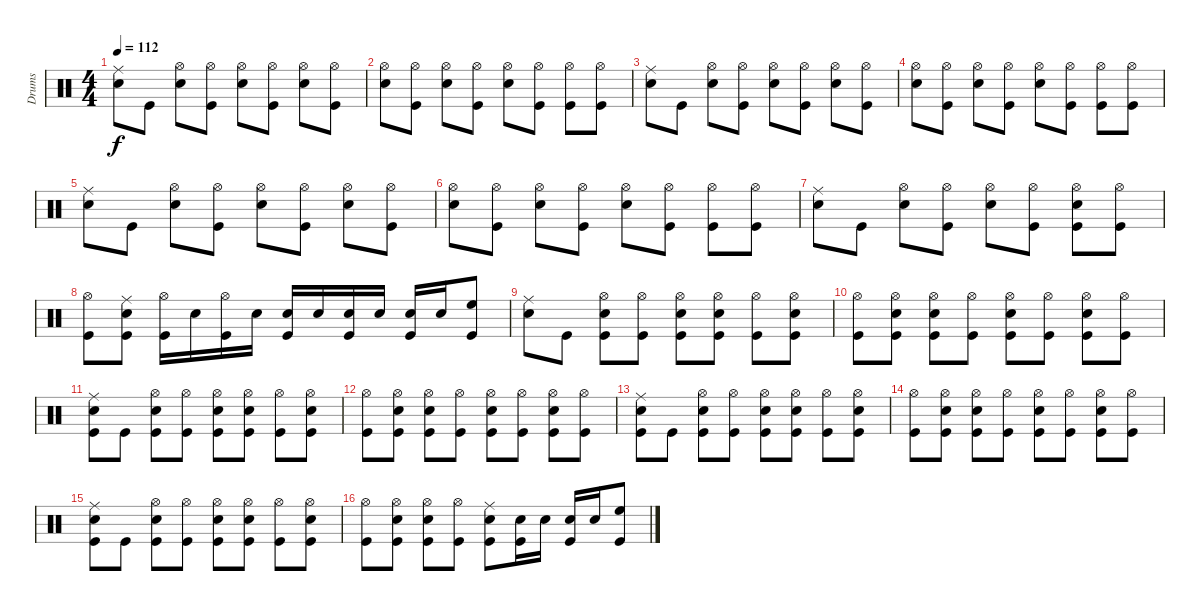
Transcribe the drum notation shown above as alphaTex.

\track ("Drums" "Drums") {instrument percussion}
\staff {score}
\articulation defaults
\ts (4 4)
\tempo 112
\clef neutral
\ks c
("Ride (middle)" "Snare (hit) 2").8{dy f} "Kick (hit)".8 ("Hi-Hat (open)" "Snare (hit) 2").8 ("Hi-Hat (open)" "Kick (hit)").8 ("Hi-Hat (open)" "Snare (hit) 2").8 ("Hi-Hat (open)" "Kick (hit)").8 ("Hi-Hat (open)" "Snare (hit) 2").8 ("Hi-Hat (open)" "Kick (hit)").8 |
("Hi-Hat (open)" "Snare (hit) 2").8 ("Hi-Hat (open)" "Kick (hit)").8 ("Hi-Hat (open)" "Snare (hit) 2").8 ("Hi-Hat (open)" "Kick (hit)").8 ("Hi-Hat (open)" "Snare (hit) 2").8 ("Hi-Hat (open)" "Kick (hit)").8 ("Hi-Hat (open)" "Kick (hit)").8 ("Hi-Hat (open)" "Kick (hit)").8 |
("Ride (middle)" "Snare (hit) 2").8 "Kick (hit)".8 ("Hi-Hat (open)" "Snare (hit) 2").8 ("Hi-Hat (open)" "Kick (hit)").8 ("Hi-Hat (open)" "Snare (hit) 2").8 ("Hi-Hat (open)" "Kick (hit)").8 ("Hi-Hat (open)" "Snare (hit) 2").8 ("Hi-Hat (open)" "Kick (hit)").8 |
("Hi-Hat (open)" "Snare (hit) 2").8 ("Hi-Hat (open)" "Kick (hit)").8 ("Hi-Hat (open)" "Snare (hit) 2").8 ("Hi-Hat (open)" "Kick (hit)").8 ("Hi-Hat (open)" "Snare (hit) 2").8 ("Hi-Hat (open)" "Kick (hit)").8 ("Hi-Hat (open)" "Kick (hit)").8 ("Hi-Hat (open)" "Kick (hit)").8 |
("Ride (middle)" "Snare (hit) 2").8 "Kick (hit)".8 ("Hi-Hat (open)" "Snare (hit) 2").8 ("Hi-Hat (open)" "Kick (hit)").8 ("Hi-Hat (open)" "Snare (hit) 2").8 ("Hi-Hat (open)" "Kick (hit)").8 ("Hi-Hat (open)" "Snare (hit) 2").8 ("Hi-Hat (open)" "Kick (hit)").8 |
("Hi-Hat (open)" "Snare (hit) 2").8 ("Hi-Hat (open)" "Kick (hit)").8 ("Hi-Hat (open)" "Snare (hit) 2").8 ("Hi-Hat (open)" "Kick (hit)").8 ("Hi-Hat (open)" "Snare (hit) 2").8 ("Hi-Hat (open)" "Kick (hit)").8 ("Hi-Hat (open)" "Kick (hit)").8 ("Hi-Hat (open)" "Kick (hit)").8 |
("Ride (middle)" "Snare (hit) 2").8 "Kick (hit)".8 ("Hi-Hat (open)" "Snare (hit) 2").8 ("Hi-Hat (open)" "Kick (hit)").8 ("Hi-Hat (open)" "Snare (hit) 2").8 ("Hi-Hat (open)" "Kick (hit)").8 ("Hi-Hat (open)" "Snare (hit) 2" "Kick (hit)").8 ("Hi-Hat (open)" "Kick (hit)").8 |
("Hi-Hat (open)" "Kick (hit)").8 ("Ride (middle)" "Snare (hit) 2" "Kick (hit)").8 ("Hi-Hat (open)" "Kick (hit)").16 "Snare (hit) 2".16 ("Hi-Hat (open)" "Kick (hit)").16 "Snare (hit) 2".16 ("Snare (hit) 2" "Kick (hit)").16 "Snare (hit) 2".16 ("Snare (hit) 2" "Kick (hit)").16 "Snare (hit) 2".16 ("Snare (hit) 2" "Kick (hit)").16 "Snare (hit) 2".16 ("High Floor Tom (hit)" "Kick (hit)").8 |
("Ride (middle)" "Snare (hit) 2").8 "Kick (hit)".8 ("Hi-Hat (open)" "Snare (hit) 2" "Kick (hit)").8 ("Hi-Hat (open)" "Kick (hit)").8 ("Hi-Hat (open)" "Snare (hit) 2" "Kick (hit)").8 ("Hi-Hat (open)" "Snare (hit) 2" "Kick (hit)").8 ("Hi-Hat (open)" "Kick (hit)").8 ("Hi-Hat (open)" "Snare (hit) 2" "Kick (hit)").8 |
("Hi-Hat (open)" "Kick (hit)").8 ("Hi-Hat (open)" "Snare (hit) 2" "Kick (hit)").8 ("Hi-Hat (open)" "Snare (hit) 2" "Kick (hit)").8 ("Hi-Hat (open)" "Kick (hit)").8 ("Hi-Hat (open)" "Snare (hit) 2" "Kick (hit)").8 ("Hi-Hat (open)" "Kick (hit)").8 ("Hi-Hat (open)" "Snare (hit) 2" "Kick (hit)").8 ("Hi-Hat (open)" "Kick (hit)").8 |
("Ride (middle)" "Snare (hit) 2" "Kick (hit)").8 "Kick (hit)".8 ("Hi-Hat (open)" "Snare (hit) 2" "Kick (hit)").8 ("Hi-Hat (open)" "Kick (hit)").8 ("Hi-Hat (open)" "Snare (hit) 2" "Kick (hit)").8 ("Hi-Hat (open)" "Snare (hit) 2" "Kick (hit)").8 ("Hi-Hat (open)" "Kick (hit)").8 ("Hi-Hat (open)" "Snare (hit) 2" "Kick (hit)").8 |
("Hi-Hat (open)" "Kick (hit)").8 ("Hi-Hat (open)" "Snare (hit) 2" "Kick (hit)").8 ("Hi-Hat (open)" "Snare (hit) 2" "Kick (hit)").8 ("Hi-Hat (open)" "Kick (hit)").8 ("Hi-Hat (open)" "Snare (hit) 2" "Kick (hit)").8 ("Hi-Hat (open)" "Kick (hit)").8 ("Hi-Hat (open)" "Snare (hit) 2" "Kick (hit)").8 ("Hi-Hat (open)" "Kick (hit)").8 |
("Ride (middle)" "Snare (hit) 2" "Kick (hit)").8 "Kick (hit)".8 ("Hi-Hat (open)" "Snare (hit) 2" "Kick (hit)").8 ("Hi-Hat (open)" "Kick (hit)").8 ("Hi-Hat (open)" "Snare (hit) 2" "Kick (hit)").8 ("Hi-Hat (open)" "Snare (hit) 2" "Kick (hit)").8 ("Hi-Hat (open)" "Kick (hit)").8 ("Hi-Hat (open)" "Snare (hit) 2" "Kick (hit)").8 |
("Hi-Hat (open)" "Kick (hit)").8 ("Hi-Hat (open)" "Snare (hit) 2" "Kick (hit)").8 ("Hi-Hat (open)" "Snare (hit) 2" "Kick (hit)").8 ("Hi-Hat (open)" "Kick (hit)").8 ("Hi-Hat (open)" "Snare (hit) 2" "Kick (hit)").8 ("Hi-Hat (open)" "Kick (hit)").8 ("Hi-Hat (open)" "Snare (hit) 2" "Kick (hit)").8 ("Hi-Hat (open)" "Kick (hit)").8 |
("Ride (middle)" "Snare (hit) 2" "Kick (hit)").8 "Kick (hit)".8 ("Hi-Hat (open)" "Snare (hit) 2" "Kick (hit)").8 ("Hi-Hat (open)" "Kick (hit)").8 ("Hi-Hat (open)" "Snare (hit) 2" "Kick (hit)").8 ("Hi-Hat (open)" "Snare (hit) 2" "Kick (hit)").8 ("Hi-Hat (open)" "Kick (hit)").8 ("Hi-Hat (open)" "Snare (hit) 2" "Kick (hit)").8 |
("Hi-Hat (open)" "Kick (hit)").8 ("Hi-Hat (open)" "Snare (hit) 2" "Kick (hit)").8 ("Hi-Hat (open)" "Snare (hit) 2" "Kick (hit)").8 ("Hi-Hat (open)" "Kick (hit)").8 ("Ride (middle)" "Snare (hit) 2" "Kick (hit)").8 ("Snare (hit) 2" "Kick (hit)").16 "Snare (hit) 2".16 ("Snare (hit) 2" "Kick (hit)").16 "Snare (hit) 2".16 ("High Floor Tom (hit)" "Kick (hit)").8
